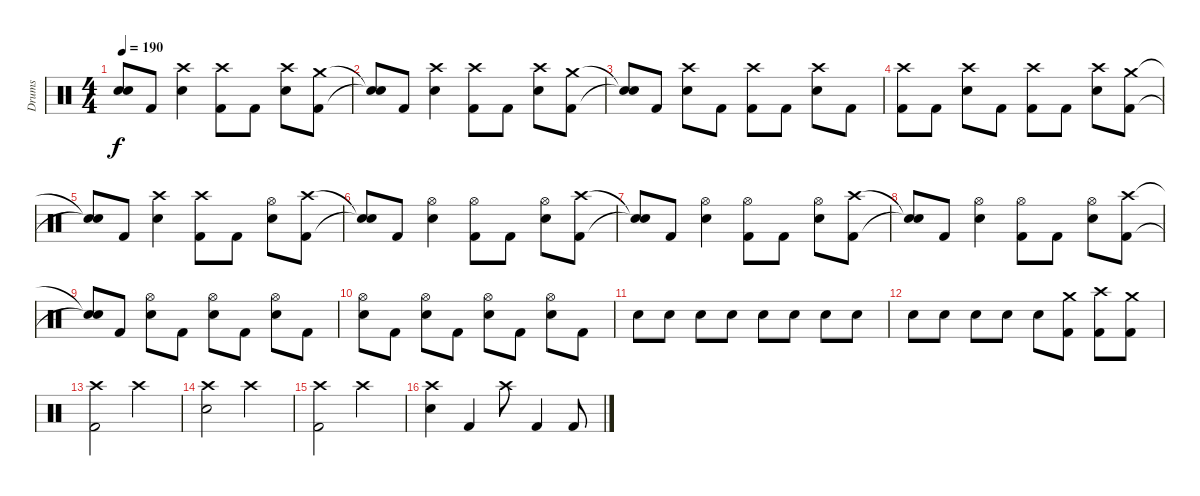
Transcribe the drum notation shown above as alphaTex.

\track ("Drums" "Drums") {instrument percussion}
\staff {score}
\articulation defaults
\ts (4 4)
\tempo 190
\clef neutral
\ks c
("Snare (hit)"{t} "Snare (hit)"{t}).8{dy f} "Kick (hit) 2".8 ("Crash high (hit)" "Electric Snare (hit)").4 ("Crash high (hit)" "Kick (hit) 2").8 "Kick (hit) 2".8 ("Crash high (hit)" "Electric Snare (hit)").8 ("Crash medium (hit)" "Kick (hit) 2").8 |
("Snare (hit)"{t} "Snare (hit)"{t}).8 "Kick (hit) 2".8 ("Crash high (hit)" "Electric Snare (hit)").4 ("Crash high (hit)" "Kick (hit) 2").8 "Kick (hit) 2".8 ("Crash high (hit)" "Electric Snare (hit)").8 ("Crash medium (hit)" "Kick (hit) 2").8 |
("Snare (hit)"{t} "Snare (hit)"{t}).8 "Kick (hit) 2".8 ("Crash high (hit)" "Electric Snare (hit)").8 "Kick (hit) 2".8 ("Crash high (hit)" "Kick (hit) 2").8 "Kick (hit) 2".8 ("Crash high (hit)" "Electric Snare (hit)").8 "Kick (hit) 2".8 |
("Crash high (hit)" "Kick (hit) 2").8 "Kick (hit) 2".8 ("Crash high (hit)" "Electric Snare (hit)").8 "Kick (hit) 2".8 ("Crash high (hit)" "Kick (hit) 2").8 "Kick (hit) 2".8 ("Crash high (hit)" "Electric Snare (hit)").8 ("Crash medium (hit)" "Kick (hit) 2").8 |
("Snare (hit)"{t} "Snare (hit)"{t}).8 "Kick (hit) 2".8 ("Crash high (hit)" "Electric Snare (hit)").4 ("Crash high (hit)" "Kick (hit) 2").8 "Kick (hit) 2".8 ("Hi-Hat (open)" "Electric Snare (hit)").8 ("Crash high (hit)" "Kick (hit) 2").8 |
("Snare (hit)"{t} "Snare (hit)"{t}).8 "Kick (hit) 2".8 ("Hi-Hat (open)" "Electric Snare (hit)").4 ("Hi-Hat (open)" "Kick (hit) 2").8 "Kick (hit) 2".8 ("Hi-Hat (open)" "Electric Snare (hit)").8 ("Crash high (hit)" "Kick (hit) 2").8 |
("Snare (hit)"{t} "Snare (hit)"{t}).8 "Kick (hit) 2".8 ("Hi-Hat (open)" "Electric Snare (hit)").4 ("Hi-Hat (open)" "Kick (hit) 2").8 "Kick (hit) 2".8 ("Hi-Hat (open)" "Electric Snare (hit)").8 ("Crash high (hit)" "Kick (hit) 2").8 |
("Snare (hit)"{t} "Snare (hit)"{t}).8 "Kick (hit) 2".8 ("Hi-Hat (open)" "Electric Snare (hit)").4 ("Hi-Hat (open)" "Kick (hit) 2").8 "Kick (hit) 2".8 ("Hi-Hat (open)" "Electric Snare (hit)").8 ("Crash high (hit)" "Kick (hit) 2").8 |
("Snare (hit)"{t} "Snare (hit)"{t}).8 "Kick (hit) 2".8 ("Hi-Hat (open)" "Electric Snare (hit)").8 "Kick (hit) 2".8 ("Hi-Hat (open)" "Electric Snare (hit)").8 "Kick (hit) 2".8 ("Hi-Hat (open)" "Electric Snare (hit)").8 "Kick (hit) 2".8 |
("Hi-Hat (open)" "Electric Snare (hit)").8 "Kick (hit) 2".8 ("Hi-Hat (open)" "Electric Snare (hit)").8 "Kick (hit) 2".8 ("Hi-Hat (open)" "Electric Snare (hit)").8 "Kick (hit) 2".8 ("Hi-Hat (open)" "Electric Snare (hit)").8 "Kick (hit) 2".8 |
"Electric Snare (hit)".8 "Electric Snare (hit)".8 "Electric Snare (hit)".8 "Electric Snare (hit)".8 "Electric Snare (hit)".8 "Electric Snare (hit)".8 "Electric Snare (hit)".8 "Electric Snare (hit)".8 |
"Electric Snare (hit)".8 "Electric Snare (hit)".8 "Electric Snare (hit)".8 "Electric Snare (hit)".8 "Electric Snare (hit)".8 ("Crash medium (hit)" "Kick (hit) 2").8 ("Crash high (hit)" "Kick (hit) 2").8 ("Crash medium (hit)" "Kick (hit) 2").8 |
("Crash high (hit)" "Kick (hit) 2").2 "Crash high (hit)".2 |
("Crash high (hit)" "Electric Snare (hit)").2 "Crash high (hit)".2 |
("Crash high (hit)" "Kick (hit) 2").2 "Crash high (hit)".2 |
("Crash high (hit)" "Electric Snare (hit)").4 "Kick (hit) 2".4 "Crash high (hit)".8 "Kick (hit) 2".4 "Kick (hit) 2".8
